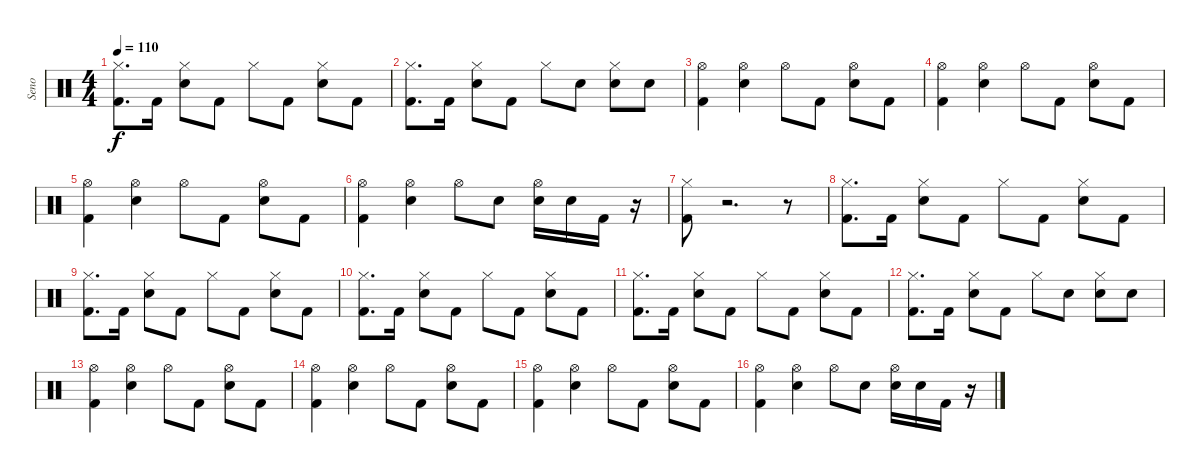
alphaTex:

\track ("Seno" "Seno") {instrument percussion}
\staff {score}
\articulation defaults
\ts (4 4)
\tempo 110
\clef neutral
\ks c
("Hi-Hat (closed)" "Kick (hit) 2").8{d dy f} "Kick (hit) 2".16 ("Snare (hit) 2" "Hi-Hat (closed)").8 "Kick (hit) 2".8 "Hi-Hat (closed)".8 "Kick (hit) 2".8 ("Snare (hit) 2" "Hi-Hat (closed)").8 "Kick (hit) 2".8 |
("Hi-Hat (closed)" "Kick (hit) 2").8{d} "Kick (hit) 2".16 ("Snare (hit) 2" "Hi-Hat (closed)").8 "Kick (hit) 2".8 "Hi-Hat (closed)".8 "Snare (hit) 2".8 ("Hi-Hat (closed)" "Snare (hit) 2").8 "Snare (hit) 2".8 |
("Kick (hit) 2" "Hi-Hat (open)").4 ("Snare (hit) 2" "Hi-Hat (open)").4 "Hi-Hat (open)".8 "Kick (hit) 2".8 ("Hi-Hat (open)" "Snare (hit) 2").8 "Kick (hit) 2".8 |
("Kick (hit) 2" "Hi-Hat (open)").4 ("Snare (hit) 2" "Hi-Hat (open)").4 "Hi-Hat (open)".8 "Kick (hit) 2".8 ("Hi-Hat (open)" "Snare (hit) 2").8 "Kick (hit) 2".8 |
("Kick (hit) 2" "Hi-Hat (open)").4 ("Snare (hit) 2" "Hi-Hat (open)").4 "Hi-Hat (open)".8 "Kick (hit) 2".8 ("Hi-Hat (open)" "Snare (hit) 2").8 "Kick (hit) 2".8 |
("Kick (hit) 2" "Hi-Hat (open)").4 ("Snare (hit) 2" "Hi-Hat (open)").4 "Hi-Hat (open)".8 "Snare (hit) 2".8 ("Hi-Hat (open)" "Snare (hit) 2").16 "Snare (hit) 2".16 "Kick (hit) 2".16 r.16 |
("Kick (hit) 2" "Hi-Hat (closed)").8 r.2{d} r.8 |
("Hi-Hat (closed)" "Kick (hit) 2").8{d} "Kick (hit) 2".16 ("Snare (hit) 2" "Hi-Hat (closed)").8 "Kick (hit) 2".8 "Hi-Hat (closed)".8 "Kick (hit) 2".8 ("Snare (hit) 2" "Hi-Hat (closed)").8 "Kick (hit) 2".8 |
("Hi-Hat (closed)" "Kick (hit) 2").8{d} "Kick (hit) 2".16 ("Snare (hit) 2" "Hi-Hat (closed)").8 "Kick (hit) 2".8 "Hi-Hat (closed)".8 "Kick (hit) 2".8 ("Snare (hit) 2" "Hi-Hat (closed)").8 "Kick (hit) 2".8 |
("Hi-Hat (closed)" "Kick (hit) 2").8{d} "Kick (hit) 2".16 ("Snare (hit) 2" "Hi-Hat (closed)").8 "Kick (hit) 2".8 "Hi-Hat (closed)".8 "Kick (hit) 2".8 ("Snare (hit) 2" "Hi-Hat (closed)").8 "Kick (hit) 2".8 |
("Hi-Hat (closed)" "Kick (hit) 2").8{d} "Kick (hit) 2".16 ("Snare (hit) 2" "Hi-Hat (closed)").8 "Kick (hit) 2".8 "Hi-Hat (closed)".8 "Kick (hit) 2".8 ("Snare (hit) 2" "Hi-Hat (closed)").8 "Kick (hit) 2".8 |
("Hi-Hat (closed)" "Kick (hit) 2").8{d} "Kick (hit) 2".16 ("Snare (hit) 2" "Hi-Hat (closed)").8 "Kick (hit) 2".8 "Hi-Hat (closed)".8 "Snare (hit) 2".8 ("Hi-Hat (closed)" "Snare (hit) 2").8 "Snare (hit) 2".8 |
("Kick (hit) 2" "Hi-Hat (open)").4 ("Snare (hit) 2" "Hi-Hat (open)").4 "Hi-Hat (open)".8 "Kick (hit) 2".8 ("Hi-Hat (open)" "Snare (hit) 2").8 "Kick (hit) 2".8 |
("Kick (hit) 2" "Hi-Hat (open)").4 ("Snare (hit) 2" "Hi-Hat (open)").4 "Hi-Hat (open)".8 "Kick (hit) 2".8 ("Hi-Hat (open)" "Snare (hit) 2").8 "Kick (hit) 2".8 |
("Kick (hit) 2" "Hi-Hat (open)").4 ("Snare (hit) 2" "Hi-Hat (open)").4 "Hi-Hat (open)".8 "Kick (hit) 2".8 ("Hi-Hat (open)" "Snare (hit) 2").8 "Kick (hit) 2".8 |
("Kick (hit) 2" "Hi-Hat (open)").4 ("Snare (hit) 2" "Hi-Hat (open)").4 "Hi-Hat (open)".8 "Snare (hit) 2".8 ("Hi-Hat (open)" "Snare (hit) 2").16 "Snare (hit) 2".16 "Kick (hit) 2".16 r.16
